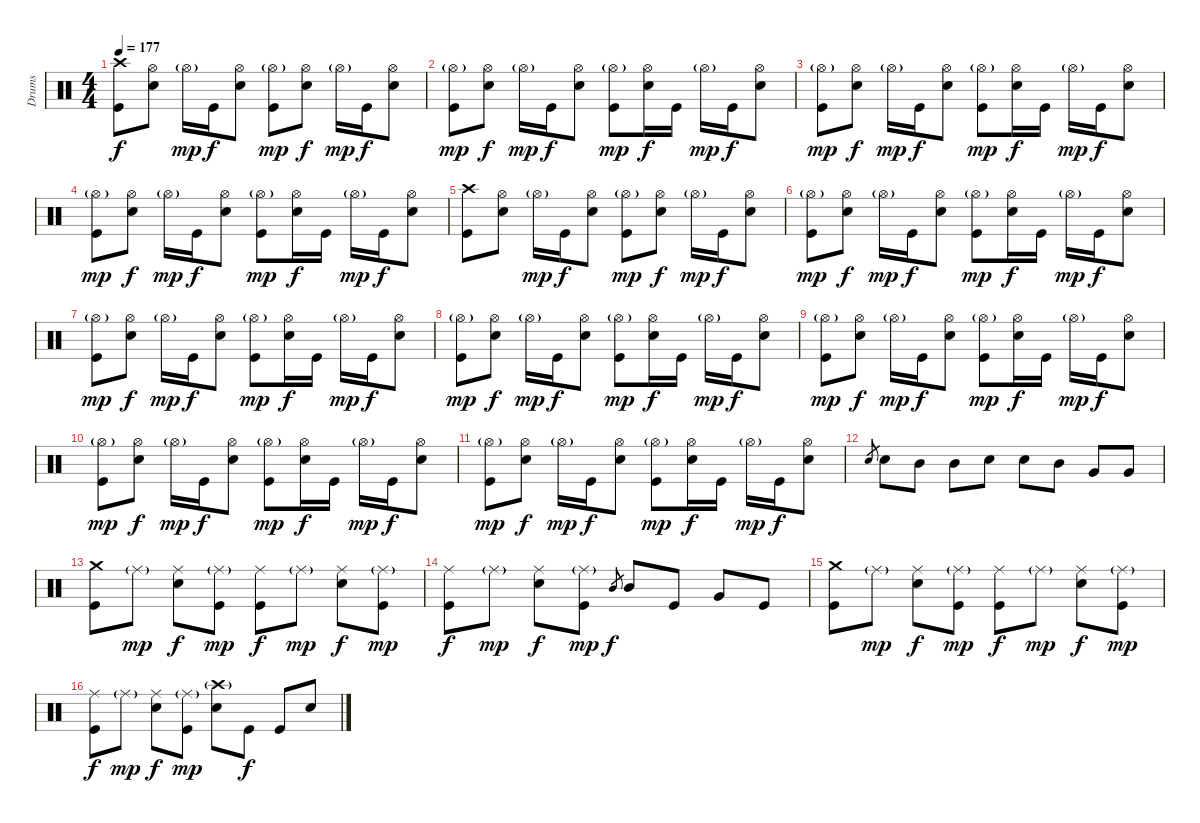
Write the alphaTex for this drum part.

\track ("Drums" "Drums") {instrument percussion}
\staff {score}
\articulation defaults
\ts (4 4)
\tempo 177
\clef neutral
\ks c
("Crash high (hit)" "Kick (hit)").8{dy f} ("Hi-Hat (open)" "Electric Snare (hit)").8 "Hi-Hat (open)"{g}.16{dy mp} "Kick (hit)".16{dy f} ("Hi-Hat (open)" "Electric Snare (hit)").8 ("Hi-Hat (open)"{g} "Kick (hit)").8{dy mp} ("Hi-Hat (open)" "Electric Snare (hit)").8{dy f} "Hi-Hat (open)"{g}.16{dy mp} "Kick (hit)".16{dy f} ("Hi-Hat (open)" "Electric Snare (hit)").8 |
("Hi-Hat (open)"{g} "Kick (hit)").8{dy mp} ("Hi-Hat (open)" "Electric Snare (hit)").8{dy f} "Hi-Hat (open)"{g}.16{dy mp} "Kick (hit)".16{dy f} ("Hi-Hat (open)" "Electric Snare (hit)").8 ("Hi-Hat (open)"{g} "Kick (hit)").8{dy mp} ("Hi-Hat (open)" "Electric Snare (hit)").16{dy f} "Kick (hit)".16 "Hi-Hat (open)"{g}.16{dy mp} "Kick (hit)".16{dy f} ("Hi-Hat (open)" "Electric Snare (hit)").8 |
("Hi-Hat (open)"{g} "Kick (hit)").8{dy mp} ("Hi-Hat (open)" "Electric Snare (hit)").8{dy f} "Hi-Hat (open)"{g}.16{dy mp} "Kick (hit)".16{dy f} ("Hi-Hat (open)" "Electric Snare (hit)").8 ("Hi-Hat (open)"{g} "Kick (hit)").8{dy mp} ("Hi-Hat (open)" "Electric Snare (hit)").16{dy f} "Kick (hit)".16 "Hi-Hat (open)"{g}.16{dy mp} "Kick (hit)".16{dy f} ("Hi-Hat (open)" "Electric Snare (hit)").8 |
("Hi-Hat (open)"{g} "Kick (hit)").8{dy mp} ("Hi-Hat (open)" "Electric Snare (hit)").8{dy f} "Hi-Hat (open)"{g}.16{dy mp} "Kick (hit)".16{dy f} ("Hi-Hat (open)" "Electric Snare (hit)").8 ("Hi-Hat (open)"{g} "Kick (hit)").8{dy mp} ("Hi-Hat (open)" "Electric Snare (hit)").16{dy f} "Kick (hit)".16 "Hi-Hat (open)"{g}.16{dy mp} "Kick (hit)".16{dy f} ("Hi-Hat (open)" "Electric Snare (hit)").8 |
("Crash high (hit)" "Kick (hit)").8 ("Hi-Hat (open)" "Electric Snare (hit)").8 "Hi-Hat (open)"{g}.16{dy mp} "Kick (hit)".16{dy f} ("Hi-Hat (open)" "Electric Snare (hit)").8 ("Hi-Hat (open)"{g} "Kick (hit)").8{dy mp} ("Hi-Hat (open)" "Electric Snare (hit)").8{dy f} "Hi-Hat (open)"{g}.16{dy mp} "Kick (hit)".16{dy f} ("Hi-Hat (open)" "Electric Snare (hit)").8 |
("Hi-Hat (open)"{g} "Kick (hit)").8{dy mp} ("Hi-Hat (open)" "Electric Snare (hit)").8{dy f} "Hi-Hat (open)"{g}.16{dy mp} "Kick (hit)".16{dy f} ("Hi-Hat (open)" "Electric Snare (hit)").8 ("Hi-Hat (open)"{g} "Kick (hit)").8{dy mp} ("Hi-Hat (open)" "Electric Snare (hit)").16{dy f} "Kick (hit)".16 "Hi-Hat (open)"{g}.16{dy mp} "Kick (hit)".16{dy f} ("Hi-Hat (open)" "Electric Snare (hit)").8 |
("Hi-Hat (open)"{g} "Kick (hit)").8{dy mp} ("Hi-Hat (open)" "Electric Snare (hit)").8{dy f} "Hi-Hat (open)"{g}.16{dy mp} "Kick (hit)".16{dy f} ("Hi-Hat (open)" "Electric Snare (hit)").8 ("Hi-Hat (open)"{g} "Kick (hit)").8{dy mp} ("Hi-Hat (open)" "Electric Snare (hit)").16{dy f} "Kick (hit)".16 "Hi-Hat (open)"{g}.16{dy mp} "Kick (hit)".16{dy f} ("Hi-Hat (open)" "Electric Snare (hit)").8 |
("Hi-Hat (open)"{g} "Kick (hit)").8{dy mp} ("Hi-Hat (open)" "Electric Snare (hit)").8{dy f} "Hi-Hat (open)"{g}.16{dy mp} "Kick (hit)".16{dy f} ("Hi-Hat (open)" "Electric Snare (hit)").8 ("Hi-Hat (open)"{g} "Kick (hit)").8{dy mp} ("Hi-Hat (open)" "Electric Snare (hit)").16{dy f} "Kick (hit)".16 "Hi-Hat (open)"{g}.16{dy mp} "Kick (hit)".16{dy f} ("Hi-Hat (open)" "Electric Snare (hit)").8 |
("Hi-Hat (open)"{g} "Kick (hit)").8{dy mp} ("Hi-Hat (open)" "Electric Snare (hit)").8{dy f} "Hi-Hat (open)"{g}.16{dy mp} "Kick (hit)".16{dy f} ("Hi-Hat (open)" "Electric Snare (hit)").8 ("Hi-Hat (open)"{g} "Kick (hit)").8{dy mp} ("Hi-Hat (open)" "Electric Snare (hit)").16{dy f} "Kick (hit)".16 "Hi-Hat (open)"{g}.16{dy mp} "Kick (hit)".16{dy f} ("Hi-Hat (open)" "Electric Snare (hit)").8 |
("Hi-Hat (open)"{g} "Kick (hit)").8{dy mp} ("Hi-Hat (open)" "Electric Snare (hit)").8{dy f} "Hi-Hat (open)"{g}.16{dy mp} "Kick (hit)".16{dy f} ("Hi-Hat (open)" "Electric Snare (hit)").8 ("Hi-Hat (open)"{g} "Kick (hit)").8{dy mp} ("Hi-Hat (open)" "Electric Snare (hit)").16{dy f} "Kick (hit)".16 "Hi-Hat (open)"{g}.16{dy mp} "Kick (hit)".16{dy f} ("Hi-Hat (open)" "Electric Snare (hit)").8 |
("Hi-Hat (open)"{g} "Kick (hit)").8{dy mp} ("Hi-Hat (open)" "Electric Snare (hit)").8{dy f} "Hi-Hat (open)"{g}.16{dy mp} "Kick (hit)".16{dy f} ("Hi-Hat (open)" "Electric Snare (hit)").8 ("Hi-Hat (open)"{g} "Kick (hit)").8{dy mp} ("Hi-Hat (open)" "Electric Snare (hit)").16{dy f} "Kick (hit)".16 "Hi-Hat (open)"{g}.16{dy mp} "Kick (hit)".16{dy f} ("Hi-Hat (open)" "Electric Snare (hit)").8 |
"Electric Snare (hit)".8{gr} "Electric Snare (hit)".8 "Mid Tom (hit)".8 "Mid Tom (hit)".8 "Electric Snare (hit)".8 "Electric Snare (hit)".8 "Mid Tom (hit)".8 "Very Low Tom (hit)".8 "Very Low Tom (hit)".8 |
("Crash medium (hit)" "Kick (hit)").8 "Ride (middle)"{g}.8{dy mp} ("Ride (middle)" "Electric Snare (hit)").8{dy f} ("Ride (middle)"{g} "Kick (hit)").8{dy mp} ("Ride (middle)" "Kick (hit)").8{dy f} "Ride (middle)"{g}.8{dy mp} ("Ride (middle)" "Electric Snare (hit)").8{dy f} ("Ride (middle)"{g} "Kick (hit)").8{dy mp} |
("Ride (middle)" "Kick (hit)").8{dy f} "Ride (middle)"{g}.8{dy mp} ("Ride (middle)" "Electric Snare (hit)").8{dy f} ("Ride (middle)"{g} "Kick (hit)").8{dy mp} "Mid Tom (hit)".8{gr dy f} "Mid Tom (hit)".8 "Kick (hit)".8 "Very Low Tom (hit)".8 "Kick (hit)".8 |
("Crash medium (hit)" "Kick (hit)").8 "Ride (middle)"{g}.8{dy mp} ("Ride (middle)" "Electric Snare (hit)").8{dy f} ("Ride (middle)"{g} "Kick (hit)").8{dy mp} ("Ride (middle)" "Kick (hit)").8{dy f} "Ride (middle)"{g}.8{dy mp} ("Ride (middle)" "Electric Snare (hit)").8{dy f} ("Ride (middle)"{g} "Kick (hit)").8{dy mp} |
("Ride (middle)" "Kick (hit)").8{dy f} "Ride (middle)"{g}.8{dy mp} ("Ride (middle)" "Electric Snare (hit)").8{dy f} ("Ride (middle)"{g} "Kick (hit)").8{dy mp} ("Crash high (hit)"{g} "Electric Snare (hit)").8 "Kick (hit)".8{dy f} "Kick (hit)".8 "Electric Snare (hit)".8
